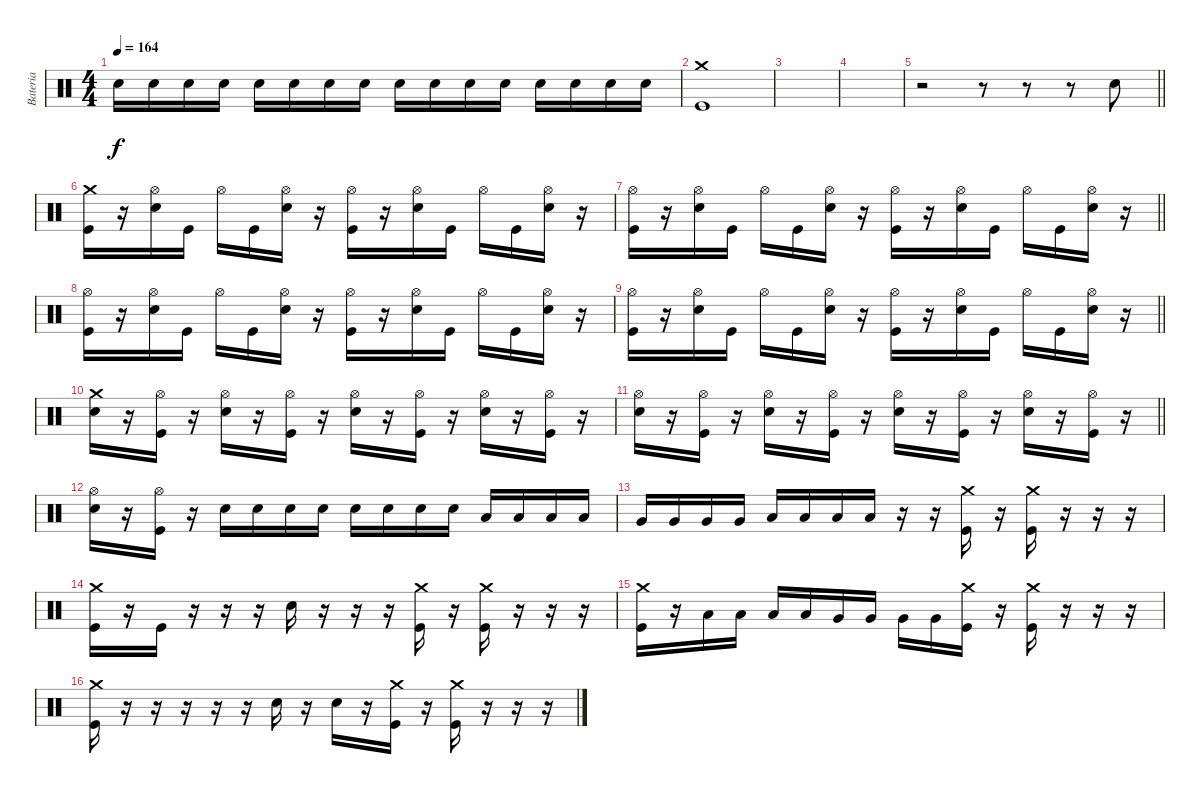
\track ("Bateria" "Bateria") {instrument percussion}
\staff {score}
\articulation defaults
\ts (4 4)
\tempo 164
\clef neutral
\ks c "Snare (hit) 2".16{dy f} "Snare (hit) 2".16 "Snare (hit) 2".16 "Snare (hit) 2".16 "Snare (hit) 2".16 "Snare (hit) 2".16 "Snare (hit) 2".16 "Snare (hit) 2".16 "Snare (hit) 2".16 "Snare (hit) 2".16 "Snare (hit) 2".16 "Snare (hit) 2".16 "Snare (hit) 2".16 "Snare (hit) 2".16 "Snare (hit) 2".16 "Snare (hit) 2".16
|
("Crash medium (hit)" "Kick (hit)").1 |
|
|
\barLineRight lightlight
r.2 r.8 r.8 r.8 "Snare (hit) 2".8 |
("Crash medium (hit)" "Kick (hit)").16 r.16 ("Hi-Hat (open)" "Snare (hit) 2").16 "Kick (hit)".16 "Hi-Hat (open)".16 "Kick (hit)".16 ("Hi-Hat (open)" "Snare (hit) 2").16 r.16 ("Hi-Hat (open)" "Kick (hit)").16 r.16 ("Hi-Hat (open)" "Snare (hit) 2").16 "Kick (hit)".16 "Hi-Hat (open)".16 "Kick (hit)".16 ("Hi-Hat (open)" "Snare (hit) 2").16 r.16 |
\barLineRight lightlight
("Hi-Hat (open)" "Kick (hit)").16 r.16 ("Hi-Hat (open)" "Snare (hit) 2").16 "Kick (hit)".16 "Hi-Hat (open)".16 "Kick (hit)".16 ("Hi-Hat (open)" "Snare (hit) 2").16 r.16 ("Hi-Hat (open)" "Kick (hit)").16 r.16 ("Hi-Hat (open)" "Snare (hit) 2").16 "Kick (hit)".16 "Hi-Hat (open)".16 "Kick (hit)".16 ("Hi-Hat (open)" "Snare (hit) 2").16 r.16 |
("Hi-Hat (open)" "Kick (hit)").16 r.16 ("Hi-Hat (open)" "Snare (hit) 2").16 "Kick (hit)".16 "Hi-Hat (open)".16 "Kick (hit)".16 ("Hi-Hat (open)" "Snare (hit) 2").16 r.16 ("Hi-Hat (open)" "Kick (hit)").16 r.16 ("Hi-Hat (open)" "Snare (hit) 2").16 "Kick (hit)".16 "Hi-Hat (open)".16 "Kick (hit)".16 ("Hi-Hat (open)" "Snare (hit) 2").16 r.16 |
\barLineRight lightlight
("Hi-Hat (open)" "Kick (hit)").16 r.16 ("Hi-Hat (open)" "Snare (hit) 2").16 "Kick (hit)".16 "Hi-Hat (open)".16 "Kick (hit)".16 ("Hi-Hat (open)" "Snare (hit) 2").16 r.16 ("Hi-Hat (open)" "Kick (hit)").16 r.16 ("Hi-Hat (open)" "Snare (hit) 2").16 "Kick (hit)".16 "Hi-Hat (open)".16 "Kick (hit)".16 ("Hi-Hat (open)" "Snare (hit) 2").16 r.16 |
("Crash medium (hit)" "Snare (hit) 2").16 r.16 ("Hi-Hat (open)" "Kick (hit)").16 r.16 ("Hi-Hat (open)" "Snare (hit) 2").16 r.16 ("Hi-Hat (open)" "Kick (hit)").16 r.16 ("Hi-Hat (open)" "Snare (hit) 2").16 r.16 ("Hi-Hat (open)" "Kick (hit)").16 r.16 ("Hi-Hat (open)" "Snare (hit) 2").16 r.16 ("Hi-Hat (open)" "Kick (hit)").16 r.16 |
\barLineRight lightlight
("Hi-Hat (open)" "Snare (hit) 2").16 r.16 ("Hi-Hat (open)" "Kick (hit)").16 r.16 ("Hi-Hat (open)" "Snare (hit) 2").16 r.16 ("Hi-Hat (open)" "Kick (hit)").16 r.16 ("Hi-Hat (open)" "Snare (hit) 2").16 r.16 ("Hi-Hat (open)" "Kick (hit)").16 r.16 ("Hi-Hat (open)" "Snare (hit) 2").16 r.16 ("Hi-Hat (open)" "Kick (hit)").16 r.16 |
("Hi-Hat (open)" "Snare (hit) 2").16 r.16 ("Hi-Hat (open)" "Kick (hit)").16 r.16 "Snare (hit) 2".16 "Snare (hit) 2".16 "Snare (hit) 2".16 "Snare (hit) 2".16 "Snare (hit) 2".16 "Snare (hit) 2".16 "Snare (hit) 2".16 "Snare (hit) 2".16 "Low Tom (hit)".16 "Low Tom (hit)".16 "Low Tom (hit)".16 "Low Tom (hit)".16 |
"Very Low Tom (hit)".16 "Very Low Tom (hit)".16 "Very Low Tom (hit)".16 "Very Low Tom (hit)".16 "Low Floor Tom (hit)".16 "Low Floor Tom (hit)".16 "Low Floor Tom (hit)".16 "Low Floor Tom (hit)".16 r.16 r.16 ("Crash medium (hit)" "Kick (hit)").16 r.16 ("Crash medium (hit)" "Kick (hit)").16 r.16 r.16 r.16 |
("Crash medium (hit)" "Kick (hit)").16 r.16 "Kick (hit)".16 r.16 r.16 r.16 "Snare (hit) 2".16 r.16 r.16 r.16 ("Crash medium (hit)" "Kick (hit)").16 r.16 ("Crash medium (hit)" "Kick (hit)").16 r.16 r.16 r.16 |
("Crash medium (hit)" "Kick (hit)").16 r.16 "Low Tom (hit)".16 "Low Tom (hit)".16 "Low Tom (hit)".16 "Low Tom (hit)".16 "Very Low Tom (hit)".16 "Very Low Tom (hit)".16 "Very Low Tom (hit)".16 "Very Low Tom (hit)".16 ("Crash medium (hit)" "Kick (hit)").16 r.16 ("Crash medium (hit)" "Kick (hit)").16 r.16 r.16 r.16 |
("Crash medium (hit)" "Kick (hit)").16 r.16 r.16 r.16 r.16 r.16 "Snare (hit) 2".16 r.16 "Snare (hit) 2".16 r.16 ("Crash medium (hit)" "Kick (hit)").16 r.16 ("Crash medium (hit)" "Kick (hit)").16 r.16 r.16 r.16
